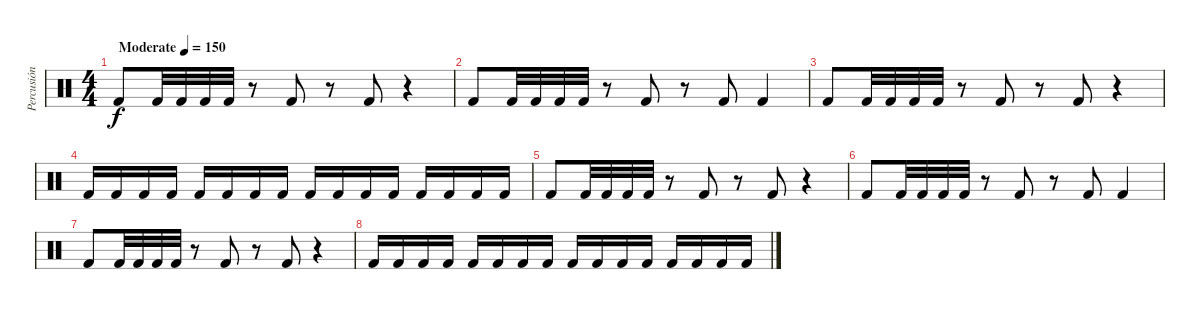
\track ("Percusión" "Percusión") {instrument percussion}
\staff {score}
\articulation defaults
\ts (4 4)
\tempo (150 "Moderate")
\clef neutral
\ks c "Kick (hit) 2".8{dy f} "Kick (hit) 2".32 "Kick (hit) 2".32 "Kick (hit) 2".32 "Kick (hit) 2".32
r.8 "Kick (hit) 2".8 r.8 "Kick (hit) 2".8 r.4 |
"Kick (hit) 2".8 "Kick (hit) 2".32 "Kick (hit) 2".32 "Kick (hit) 2".32 "Kick (hit) 2".32 r.8 "Kick (hit) 2".8 r.8 "Kick (hit) 2".8 "Kick (hit) 2".4 |
"Kick (hit) 2".8 "Kick (hit) 2".32 "Kick (hit) 2".32 "Kick (hit) 2".32 "Kick (hit) 2".32 r.8 "Kick (hit) 2".8 r.8 "Kick (hit) 2".8 r.4 |
"Kick (hit) 2".16 "Kick (hit) 2".16 "Kick (hit) 2".16 "Kick (hit) 2".16 "Kick (hit) 2".16 "Kick (hit) 2".16 "Kick (hit) 2".16 "Kick (hit) 2".16 "Kick (hit) 2".16 "Kick (hit) 2".16 "Kick (hit) 2".16 "Kick (hit) 2".16 "Kick (hit) 2".16 "Kick (hit) 2".16 "Kick (hit) 2".16 "Kick (hit) 2".16 |
"Kick (hit) 2".8 "Kick (hit) 2".32 "Kick (hit) 2".32 "Kick (hit) 2".32 "Kick (hit) 2".32 r.8 "Kick (hit) 2".8 r.8 "Kick (hit) 2".8 r.4 |
"Kick (hit) 2".8 "Kick (hit) 2".32 "Kick (hit) 2".32 "Kick (hit) 2".32 "Kick (hit) 2".32 r.8 "Kick (hit) 2".8 r.8 "Kick (hit) 2".8 "Kick (hit) 2".4 |
"Kick (hit) 2".8 "Kick (hit) 2".32 "Kick (hit) 2".32 "Kick (hit) 2".32 "Kick (hit) 2".32 r.8 "Kick (hit) 2".8 r.8 "Kick (hit) 2".8 r.4 |
"Kick (hit) 2".16 "Kick (hit) 2".16 "Kick (hit) 2".16 "Kick (hit) 2".16 "Kick (hit) 2".16 "Kick (hit) 2".16 "Kick (hit) 2".16 "Kick (hit) 2".16 "Kick (hit) 2".16 "Kick (hit) 2".16 "Kick (hit) 2".16 "Kick (hit) 2".16 "Kick (hit) 2".16 "Kick (hit) 2".16 "Kick (hit) 2".16 "Kick (hit) 2".16
